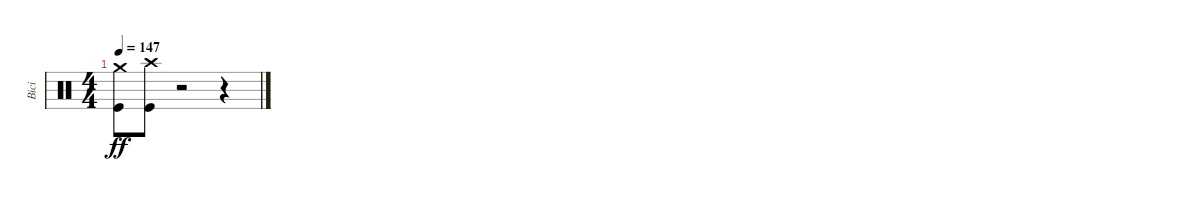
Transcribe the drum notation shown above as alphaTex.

\track ("Bici" "Bici") {instrument percussion}
\staff {score}
\articulation defaults
\ts (4 4)
\tempo 147
\clef neutral
\ks c
("Kick (hit)" "Crash medium (hit)").8{dy ff} ("Kick (hit)" "Crash high (hit)").8 r.2 r.4
